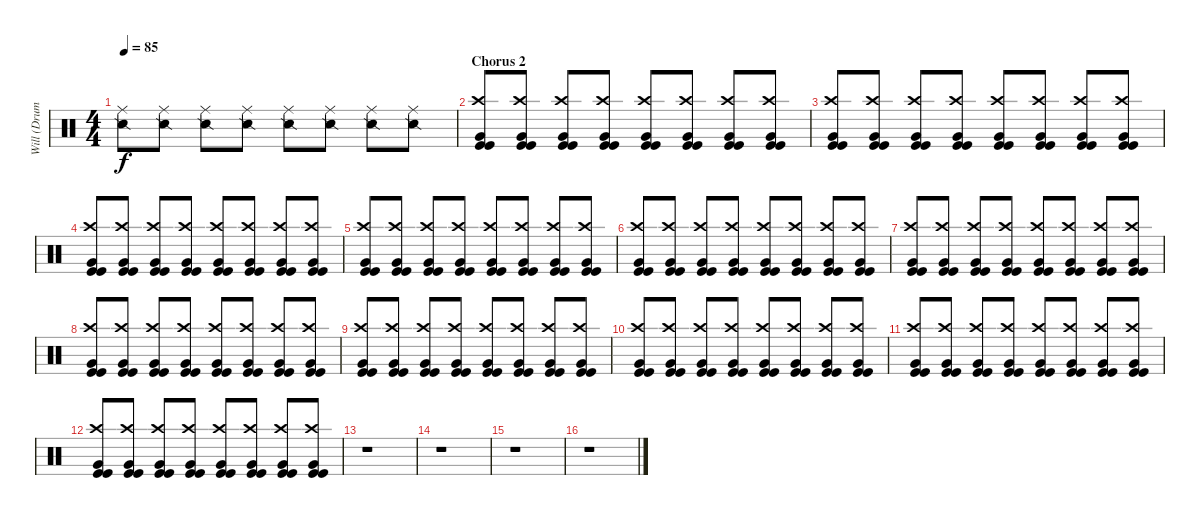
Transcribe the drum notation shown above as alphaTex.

\track ("Will (Drums)" "Will (Drum") {instrument percussion}
\staff {score}
\articulation defaults
\ts (4 4)
\tempo 85
\clef neutral
\ks c
("Ride (middle)" "Snare (side stick) 2").8{dy f} ("Ride (middle)" "Snare (side stick) 2").8 ("Ride (middle)" "Snare (side stick) 2").8 ("Ride (middle)" "Snare (side stick) 2").8 ("Ride (middle)" "Snare (side stick) 2").8 ("Ride (middle)" "Snare (side stick) 2").8 ("Ride (middle)" "Snare (side stick) 2").8 ("Ride (middle)" "Snare (side stick) 2").8 |
\section ("" "Chorus 2")
("Kick (hit)" "Crash high (hit)" "Very Low Tom (hit)" "Kick (hit)").8 ("Kick (hit)" "Crash high (hit)" "Very Low Tom (hit)" "Kick (hit)").8 ("Kick (hit)" "Crash high (hit)" "Very Low Tom (hit)" "Kick (hit)").8 ("Kick (hit)" "Crash high (hit)" "Very Low Tom (hit)" "Kick (hit)").8 ("Kick (hit)" "Crash high (hit)" "Very Low Tom (hit)" "Kick (hit)").8 ("Kick (hit)" "Crash high (hit)" "Very Low Tom (hit)" "Kick (hit)").8 ("Kick (hit)" "Crash high (hit)" "Very Low Tom (hit)" "Kick (hit)").8 ("Kick (hit)" "Crash high (hit)" "Very Low Tom (hit)" "Kick (hit)").8 |
("Kick (hit)" "Crash high (hit)" "Very Low Tom (hit)" "Kick (hit)").8 ("Kick (hit)" "Crash high (hit)" "Very Low Tom (hit)" "Kick (hit)").8 ("Kick (hit)" "Crash high (hit)" "Very Low Tom (hit)" "Kick (hit)").8 ("Kick (hit)" "Crash high (hit)" "Very Low Tom (hit)" "Kick (hit)").8 ("Kick (hit)" "Crash high (hit)" "Very Low Tom (hit)" "Kick (hit)").8 ("Kick (hit)" "Crash high (hit)" "Very Low Tom (hit)" "Kick (hit)").8 ("Kick (hit)" "Crash high (hit)" "Very Low Tom (hit)" "Kick (hit)").8 ("Kick (hit)" "Crash high (hit)" "Very Low Tom (hit)" "Kick (hit)").8 |
("Kick (hit)" "Crash high (hit)" "Very Low Tom (hit)" "Kick (hit)").8 ("Kick (hit)" "Crash high (hit)" "Very Low Tom (hit)" "Kick (hit)").8 ("Kick (hit)" "Crash high (hit)" "Very Low Tom (hit)" "Kick (hit)").8 ("Kick (hit)" "Crash high (hit)" "Very Low Tom (hit)" "Kick (hit)").8 ("Kick (hit)" "Crash high (hit)" "Very Low Tom (hit)" "Kick (hit)").8 ("Kick (hit)" "Crash high (hit)" "Very Low Tom (hit)" "Kick (hit)").8 ("Kick (hit)" "Crash high (hit)" "Very Low Tom (hit)" "Kick (hit)").8 ("Kick (hit)" "Crash high (hit)" "Very Low Tom (hit)" "Kick (hit)").8 |
("Kick (hit)" "Crash high (hit)" "Very Low Tom (hit)" "Kick (hit)").8 ("Kick (hit)" "Crash high (hit)" "Very Low Tom (hit)" "Kick (hit)").8 ("Kick (hit)" "Crash high (hit)" "Very Low Tom (hit)" "Kick (hit)").8 ("Kick (hit)" "Crash high (hit)" "Very Low Tom (hit)" "Kick (hit)").8 ("Kick (hit)" "Crash high (hit)" "Very Low Tom (hit)" "Kick (hit)").8 ("Kick (hit)" "Crash high (hit)" "Very Low Tom (hit)" "Kick (hit)").8 ("Kick (hit)" "Crash high (hit)" "Very Low Tom (hit)" "Kick (hit)").8 ("Kick (hit)" "Crash high (hit)" "Very Low Tom (hit)" "Kick (hit)").8 |
("Kick (hit)" "Crash high (hit)" "Very Low Tom (hit)" "Kick (hit)").8 ("Kick (hit)" "Crash high (hit)" "Very Low Tom (hit)" "Kick (hit)").8 ("Kick (hit)" "Crash high (hit)" "Very Low Tom (hit)" "Kick (hit)").8 ("Kick (hit)" "Crash high (hit)" "Very Low Tom (hit)" "Kick (hit)").8 ("Kick (hit)" "Crash high (hit)" "Very Low Tom (hit)" "Kick (hit)").8 ("Kick (hit)" "Crash high (hit)" "Very Low Tom (hit)" "Kick (hit)").8 ("Kick (hit)" "Crash high (hit)" "Very Low Tom (hit)" "Kick (hit)").8 ("Kick (hit)" "Crash high (hit)" "Very Low Tom (hit)" "Kick (hit)").8 |
("Kick (hit)" "Crash high (hit)" "Very Low Tom (hit)" "Kick (hit)").8 ("Kick (hit)" "Crash high (hit)" "Very Low Tom (hit)" "Kick (hit)").8 ("Kick (hit)" "Crash high (hit)" "Very Low Tom (hit)" "Kick (hit)").8 ("Kick (hit)" "Crash high (hit)" "Very Low Tom (hit)" "Kick (hit)").8 ("Kick (hit)" "Crash high (hit)" "Very Low Tom (hit)" "Kick (hit)").8 ("Kick (hit)" "Crash high (hit)" "Very Low Tom (hit)" "Kick (hit)").8 ("Kick (hit)" "Crash high (hit)" "Very Low Tom (hit)" "Kick (hit)").8 ("Kick (hit)" "Crash high (hit)" "Very Low Tom (hit)" "Kick (hit)").8 |
("Kick (hit)" "Crash high (hit)" "Very Low Tom (hit)" "Kick (hit)").8 ("Kick (hit)" "Crash high (hit)" "Very Low Tom (hit)" "Kick (hit)").8 ("Kick (hit)" "Crash high (hit)" "Very Low Tom (hit)" "Kick (hit)").8 ("Kick (hit)" "Crash high (hit)" "Very Low Tom (hit)" "Kick (hit)").8 ("Kick (hit)" "Crash high (hit)" "Very Low Tom (hit)" "Kick (hit)").8 ("Kick (hit)" "Crash high (hit)" "Very Low Tom (hit)" "Kick (hit)").8 ("Kick (hit)" "Crash high (hit)" "Very Low Tom (hit)" "Kick (hit)").8 ("Kick (hit)" "Crash high (hit)" "Very Low Tom (hit)" "Kick (hit)").8 |
("Kick (hit)" "Crash high (hit)" "Very Low Tom (hit)" "Kick (hit)").8 ("Kick (hit)" "Crash high (hit)" "Very Low Tom (hit)" "Kick (hit)").8 ("Kick (hit)" "Crash high (hit)" "Very Low Tom (hit)" "Kick (hit)").8 ("Kick (hit)" "Crash high (hit)" "Very Low Tom (hit)" "Kick (hit)").8 ("Kick (hit)" "Crash high (hit)" "Very Low Tom (hit)" "Kick (hit)").8 ("Kick (hit)" "Crash high (hit)" "Very Low Tom (hit)" "Kick (hit)").8 ("Kick (hit)" "Crash high (hit)" "Very Low Tom (hit)" "Kick (hit)").8 ("Kick (hit)" "Crash high (hit)" "Very Low Tom (hit)" "Kick (hit)").8 |
("Kick (hit)" "Crash high (hit)" "Very Low Tom (hit)" "Kick (hit)").8 ("Kick (hit)" "Crash high (hit)" "Very Low Tom (hit)" "Kick (hit)").8 ("Kick (hit)" "Crash high (hit)" "Very Low Tom (hit)" "Kick (hit)").8 ("Kick (hit)" "Crash high (hit)" "Very Low Tom (hit)" "Kick (hit)").8 ("Kick (hit)" "Crash high (hit)" "Very Low Tom (hit)" "Kick (hit)").8 ("Kick (hit)" "Crash high (hit)" "Very Low Tom (hit)" "Kick (hit)").8 ("Kick (hit)" "Crash high (hit)" "Very Low Tom (hit)" "Kick (hit)").8 ("Kick (hit)" "Crash high (hit)" "Very Low Tom (hit)" "Kick (hit)").8 |
("Kick (hit)" "Crash high (hit)" "Very Low Tom (hit)" "Kick (hit)").8 ("Kick (hit)" "Crash high (hit)" "Very Low Tom (hit)" "Kick (hit)").8 ("Kick (hit)" "Crash high (hit)" "Very Low Tom (hit)" "Kick (hit)").8 ("Kick (hit)" "Crash high (hit)" "Very Low Tom (hit)" "Kick (hit)").8 ("Kick (hit)" "Crash high (hit)" "Very Low Tom (hit)" "Kick (hit)").8 ("Kick (hit)" "Crash high (hit)" "Very Low Tom (hit)" "Kick (hit)").8 ("Kick (hit)" "Crash high (hit)" "Very Low Tom (hit)" "Kick (hit)").8 ("Kick (hit)" "Crash high (hit)" "Very Low Tom (hit)" "Kick (hit)").8 |
("Kick (hit)" "Crash high (hit)" "Very Low Tom (hit)" "Kick (hit)").8 ("Kick (hit)" "Crash high (hit)" "Very Low Tom (hit)" "Kick (hit)").8 ("Kick (hit)" "Crash high (hit)" "Very Low Tom (hit)" "Kick (hit)").8 ("Kick (hit)" "Crash high (hit)" "Very Low Tom (hit)" "Kick (hit)").8 ("Kick (hit)" "Crash high (hit)" "Very Low Tom (hit)" "Kick (hit)").8 ("Kick (hit)" "Crash high (hit)" "Very Low Tom (hit)" "Kick (hit)").8 ("Kick (hit)" "Crash high (hit)" "Very Low Tom (hit)" "Kick (hit)").8 ("Kick (hit)" "Crash high (hit)" "Very Low Tom (hit)" "Kick (hit)").8 |
r.1 |
r.1 |
r.1 |
r.1
